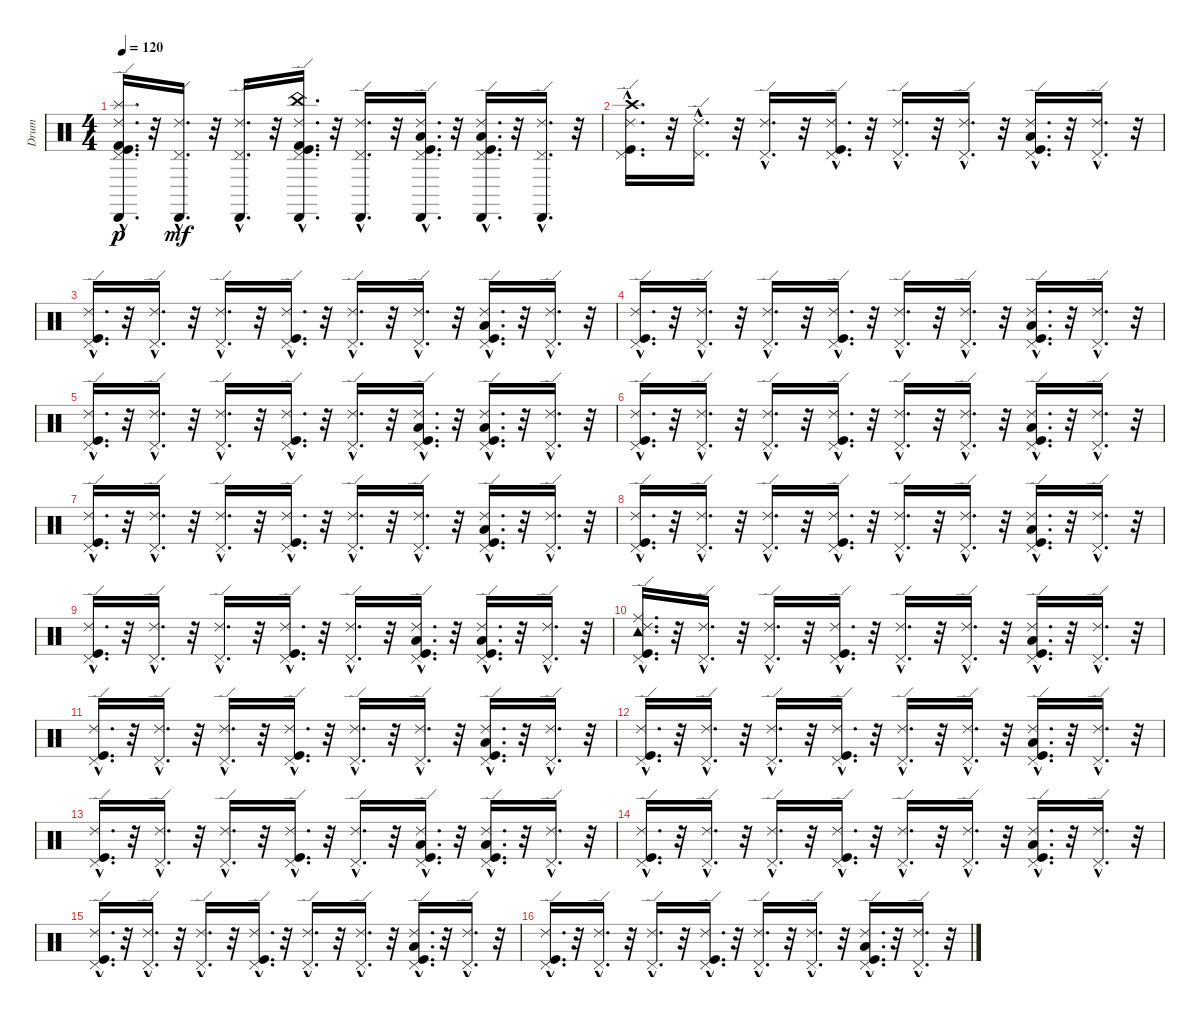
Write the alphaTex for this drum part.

\track ("Drum" "Drum") {instrument percussion}
\staff {score}
\articulation defaults
\ts (4 4)
\tempo 120
\clef neutral
\ks c
("Ride (edge) 2"{hac} "Kick (hit)"{hac} "Pedal Hi-Hat (hit)"{hac} "Cabasa (hit)"{hac} "Kick (hit) 2"{hac} "Splash (hit)"{hac}).16{d dy p} r.32 ("Ride (edge) 2"{hac} "Pedal Hi-Hat (hit)"{hac} "Cabasa (hit)"{hac}).16{d dy mf} r.32 ("Ride (edge) 2"{hac} "Pedal Hi-Hat (hit)"{hac} "Cabasa (hit)"{hac}).16{d} r.32 ("China (hit)"{hac} "Ride (edge) 2"{hac} "Kick (hit)"{hac} "Pedal Hi-Hat (hit)"{hac} "Cabasa (hit)"{hac} "Kick (hit) 2"{hac}).16{d} r.32 ("Ride (edge) 2"{hac} "Pedal Hi-Hat (hit)"{hac} "Cabasa (hit)"{hac}).16{d} r.32 ("Low Tom (hit)"{hac} "Kick (hit)"{hac} "Ride (edge) 2"{hac} "Pedal Hi-Hat (hit)"{hac} "Cabasa (hit)"{hac}).16{d} r.32 ("Ride (edge) 2"{hac} "Low Tom (hit)"{hac} "Kick (hit)"{hac} "Pedal Hi-Hat (hit)"{hac} "Cabasa (hit)"{hac}).16{d} r.32 ("Ride (edge) 2"{hac} "Pedal Hi-Hat (hit)"{hac} "Cabasa (hit)"{hac}).16{d} r.32 |
("Crash high (hit)"{hac} "Pedal Hi-Hat (hit)"{hac} "Kick (hit)"{hac} "Ride (edge) 2"{hac}).16{d} r.32 ("Pedal Hi-Hat (hit)"{hac} "Ride (edge) 2"{hac}).16{d} r.32 ("Pedal Hi-Hat (hit)"{hac} "Ride (edge) 2"{hac}).16{d} r.32 ("Pedal Hi-Hat (hit)"{hac} "Kick (hit)"{hac} "Ride (edge) 2"{hac}).16{d} r.32 ("Pedal Hi-Hat (hit)"{hac} "Ride (edge) 2"{hac}).16{d} r.32 ("Pedal Hi-Hat (hit)"{hac} "Ride (edge) 2"{hac}).16{d} r.32 ("Pedal Hi-Hat (hit)"{hac} "Kick (hit)"{hac} "Low Tom (hit)"{hac} "Ride (edge) 2"{hac}).16{d} r.32 ("Pedal Hi-Hat (hit)"{hac} "Ride (edge) 2"{hac}).16{d} r.32 |
("Ride (edge) 2"{hac} "Kick (hit)"{hac} "Pedal Hi-Hat (hit)"{hac}).16{d} r.32 ("Ride (edge) 2"{hac} "Pedal Hi-Hat (hit)"{hac}).16{d} r.32 ("Ride (edge) 2"{hac} "Pedal Hi-Hat (hit)"{hac}).16{d} r.32 ("Ride (edge) 2"{hac} "Kick (hit)"{hac} "Pedal Hi-Hat (hit)"{hac}).16{d} r.32 ("Ride (edge) 2"{hac} "Pedal Hi-Hat (hit)"{hac}).16{d} r.32 ("Ride (edge) 2"{hac} "Pedal Hi-Hat (hit)"{hac}).16{d} r.32 ("Ride (edge) 2"{hac} "Low Tom (hit)"{hac} "Kick (hit)"{hac} "Pedal Hi-Hat (hit)"{hac}).16{d} r.32 ("Ride (edge) 2"{hac} "Pedal Hi-Hat (hit)"{hac}).16{d} r.32 |
("Ride (edge) 2"{hac} "Kick (hit)"{hac} "Pedal Hi-Hat (hit)"{hac}).16{d} r.32 ("Ride (edge) 2"{hac} "Pedal Hi-Hat (hit)"{hac}).16{d} r.32 ("Ride (edge) 2"{hac} "Pedal Hi-Hat (hit)"{hac}).16{d} r.32 ("Ride (edge) 2"{hac} "Kick (hit)"{hac} "Pedal Hi-Hat (hit)"{hac}).16{d} r.32 ("Ride (edge) 2"{hac} "Pedal Hi-Hat (hit)"{hac}).16{d} r.32 ("Ride (edge) 2"{hac} "Pedal Hi-Hat (hit)"{hac}).16{d} r.32 ("Ride (edge) 2"{hac} "Low Tom (hit)"{hac} "Kick (hit)"{hac} "Pedal Hi-Hat (hit)"{hac}).16{d} r.32 ("Ride (edge) 2"{hac} "Pedal Hi-Hat (hit)"{hac}).16{d} r.32 |
("Ride (edge) 2"{hac} "Kick (hit)"{hac} "Pedal Hi-Hat (hit)"{hac}).16{d} r.32 ("Ride (edge) 2"{hac} "Pedal Hi-Hat (hit)"{hac}).16{d} r.32 ("Ride (edge) 2"{hac} "Pedal Hi-Hat (hit)"{hac}).16{d} r.32 ("Ride (edge) 2"{hac} "Kick (hit)"{hac} "Pedal Hi-Hat (hit)"{hac}).16{d} r.32 ("Ride (edge) 2"{hac} "Pedal Hi-Hat (hit)"{hac}).16{d} r.32 ("Ride (edge) 2"{hac} "Pedal Hi-Hat (hit)"{hac} "Kick (hit)"{hac} "Low Tom (hit)"{hac}).16{d} r.32 ("Ride (edge) 2"{hac} "Low Tom (hit)"{hac} "Kick (hit)"{hac} "Pedal Hi-Hat (hit)"{hac}).16{d} r.32 ("Ride (edge) 2"{hac} "Pedal Hi-Hat (hit)"{hac}).16{d} r.32 |
("Ride (edge) 2"{hac} "Kick (hit)"{hac} "Pedal Hi-Hat (hit)"{hac}).16{d} r.32 ("Ride (edge) 2"{hac} "Pedal Hi-Hat (hit)"{hac}).16{d} r.32 ("Ride (edge) 2"{hac} "Pedal Hi-Hat (hit)"{hac}).16{d} r.32 ("Ride (edge) 2"{hac} "Kick (hit)"{hac} "Pedal Hi-Hat (hit)"{hac}).16{d} r.32 ("Ride (edge) 2"{hac} "Pedal Hi-Hat (hit)"{hac}).16{d} r.32 ("Ride (edge) 2"{hac} "Pedal Hi-Hat (hit)"{hac}).16{d} r.32 ("Ride (edge) 2"{hac} "Low Tom (hit)"{hac} "Kick (hit)"{hac} "Pedal Hi-Hat (hit)"{hac}).16{d} r.32 ("Ride (edge) 2"{hac} "Pedal Hi-Hat (hit)"{hac}).16{d} r.32 |
("Pedal Hi-Hat (hit)"{hac} "Kick (hit)"{hac} "Ride (edge) 2"{hac}).16{d} r.32 ("Pedal Hi-Hat (hit)"{hac} "Ride (edge) 2"{hac}).16{d} r.32 ("Pedal Hi-Hat (hit)"{hac} "Ride (edge) 2"{hac}).16{d} r.32 ("Pedal Hi-Hat (hit)"{hac} "Kick (hit)"{hac} "Ride (edge) 2"{hac}).16{d} r.32 ("Pedal Hi-Hat (hit)"{hac} "Ride (edge) 2"{hac}).16{d} r.32 ("Pedal Hi-Hat (hit)"{hac} "Ride (edge) 2"{hac}).16{d} r.32 ("Pedal Hi-Hat (hit)"{hac} "Kick (hit)"{hac} "Low Tom (hit)"{hac} "Ride (edge) 2"{hac}).16{d} r.32 ("Pedal Hi-Hat (hit)"{hac} "Ride (edge) 2"{hac}).16{d} r.32 |
("Pedal Hi-Hat (hit)"{hac} "Kick (hit)"{hac} "Ride (edge) 2"{hac}).16{d} r.32 ("Pedal Hi-Hat (hit)"{hac} "Ride (edge) 2"{hac}).16{d} r.32 ("Pedal Hi-Hat (hit)"{hac} "Ride (edge) 2"{hac}).16{d} r.32 ("Pedal Hi-Hat (hit)"{hac} "Kick (hit)"{hac} "Ride (edge) 2"{hac}).16{d} r.32 ("Pedal Hi-Hat (hit)"{hac} "Ride (edge) 2"{hac}).16{d} r.32 ("Pedal Hi-Hat (hit)"{hac} "Ride (edge) 2"{hac}).16{d} r.32 ("Pedal Hi-Hat (hit)"{hac} "Kick (hit)"{hac} "Low Tom (hit)"{hac} "Ride (edge) 2"{hac}).16{d} r.32 ("Pedal Hi-Hat (hit)"{hac} "Ride (edge) 2"{hac}).16{d} r.32 |
("Pedal Hi-Hat (hit)"{hac} "Kick (hit)"{hac} "Ride (edge) 2"{hac}).16{d} r.32 ("Pedal Hi-Hat (hit)"{hac} "Ride (edge) 2"{hac}).16{d} r.32 ("Pedal Hi-Hat (hit)"{hac} "Ride (edge) 2"{hac}).16{d} r.32 ("Pedal Hi-Hat (hit)"{hac} "Kick (hit)"{hac} "Ride (edge) 2"{hac}).16{d} r.32 ("Pedal Hi-Hat (hit)"{hac} "Ride (edge) 2"{hac}).16{d} r.32 ("Low Tom (hit)"{hac} "Kick (hit)"{hac} "Pedal Hi-Hat (hit)"{hac} "Ride (edge) 2"{hac}).16{d} r.32 ("Pedal Hi-Hat (hit)"{hac} "Kick (hit)"{hac} "Low Tom (hit)"{hac} "Ride (edge) 2"{hac}).16{d} r.32 ("Pedal Hi-Hat (hit)"{hac} "Ride (edge) 2"{hac}).16{d} r.32 |
("Ride (edge) 2"{hac} "Kick (hit)"{hac} "Pedal Hi-Hat (hit)"{hac} "Ride (middle)"{hac} "Tambourine (hit)"{hac}).16{d} r.32 ("Ride (edge) 2"{hac} "Pedal Hi-Hat (hit)"{hac}).16{d} r.32 ("Ride (edge) 2"{hac} "Pedal Hi-Hat (hit)"{hac}).16{d} r.32 ("Ride (edge) 2"{hac} "Kick (hit)"{hac} "Pedal Hi-Hat (hit)"{hac}).16{d} r.32 ("Ride (edge) 2"{hac} "Pedal Hi-Hat (hit)"{hac}).16{d} r.32 ("Ride (edge) 2"{hac} "Pedal Hi-Hat (hit)"{hac}).16{d} r.32 ("Ride (edge) 2"{hac} "Low Tom (hit)"{hac} "Kick (hit)"{hac} "Pedal Hi-Hat (hit)"{hac}).16{d} r.32 ("Ride (edge) 2"{hac} "Pedal Hi-Hat (hit)"{hac}).16{d} r.32 |
("Pedal Hi-Hat (hit)"{hac} "Kick (hit)"{hac} "Ride (edge) 2"{hac}).16{d} r.32 ("Pedal Hi-Hat (hit)"{hac} "Ride (edge) 2"{hac}).16{d} r.32 ("Pedal Hi-Hat (hit)"{hac} "Ride (edge) 2"{hac}).16{d} r.32 ("Pedal Hi-Hat (hit)"{hac} "Kick (hit)"{hac} "Ride (edge) 2"{hac}).16{d} r.32 ("Pedal Hi-Hat (hit)"{hac} "Ride (edge) 2"{hac}).16{d} r.32 ("Pedal Hi-Hat (hit)"{hac} "Ride (edge) 2"{hac}).16{d} r.32 ("Pedal Hi-Hat (hit)"{hac} "Kick (hit)"{hac} "Low Tom (hit)"{hac} "Ride (edge) 2"{hac}).16{d} r.32 ("Pedal Hi-Hat (hit)"{hac} "Ride (edge) 2"{hac}).16{d} r.32 |
("Pedal Hi-Hat (hit)"{hac} "Kick (hit)"{hac} "Ride (edge) 2"{hac}).16{d} r.32 ("Pedal Hi-Hat (hit)"{hac} "Ride (edge) 2"{hac}).16{d} r.32 ("Pedal Hi-Hat (hit)"{hac} "Ride (edge) 2"{hac}).16{d} r.32 ("Pedal Hi-Hat (hit)"{hac} "Kick (hit)"{hac} "Ride (edge) 2"{hac}).16{d} r.32 ("Pedal Hi-Hat (hit)"{hac} "Ride (edge) 2"{hac}).16{d} r.32 ("Pedal Hi-Hat (hit)"{hac} "Ride (edge) 2"{hac}).16{d} r.32 ("Pedal Hi-Hat (hit)"{hac} "Kick (hit)"{hac} "Low Tom (hit)"{hac} "Ride (edge) 2"{hac}).16{d} r.32 ("Pedal Hi-Hat (hit)"{hac} "Ride (edge) 2"{hac}).16{d} r.32 |
("Pedal Hi-Hat (hit)"{hac} "Kick (hit)"{hac} "Ride (edge) 2"{hac}).16{d} r.32 ("Pedal Hi-Hat (hit)"{hac} "Ride (edge) 2"{hac}).16{d} r.32 ("Pedal Hi-Hat (hit)"{hac} "Ride (edge) 2"{hac}).16{d} r.32 ("Pedal Hi-Hat (hit)"{hac} "Kick (hit)"{hac} "Ride (edge) 2"{hac}).16{d} r.32 ("Pedal Hi-Hat (hit)"{hac} "Ride (edge) 2"{hac}).16{d} r.32 ("Low Tom (hit)"{hac} "Kick (hit)"{hac} "Pedal Hi-Hat (hit)"{hac} "Ride (edge) 2"{hac}).16{d} r.32 ("Pedal Hi-Hat (hit)"{hac} "Kick (hit)"{hac} "Low Tom (hit)"{hac} "Ride (edge) 2"{hac}).16{d} r.32 ("Pedal Hi-Hat (hit)"{hac} "Ride (edge) 2"{hac}).16{d} r.32 |
("Pedal Hi-Hat (hit)"{hac} "Kick (hit)"{hac} "Ride (edge) 2"{hac}).16{d} r.32 ("Pedal Hi-Hat (hit)"{hac} "Ride (edge) 2"{hac}).16{d} r.32 ("Pedal Hi-Hat (hit)"{hac} "Ride (edge) 2"{hac}).16{d} r.32 ("Pedal Hi-Hat (hit)"{hac} "Kick (hit)"{hac} "Ride (edge) 2"{hac}).16{d} r.32 ("Pedal Hi-Hat (hit)"{hac} "Ride (edge) 2"{hac}).16{d} r.32 ("Pedal Hi-Hat (hit)"{hac} "Ride (edge) 2"{hac}).16{d} r.32 ("Pedal Hi-Hat (hit)"{hac} "Kick (hit)"{hac} "Low Tom (hit)"{hac} "Ride (edge) 2"{hac}).16{d} r.32 ("Pedal Hi-Hat (hit)"{hac} "Ride (edge) 2"{hac}).16{d} r.32 |
("Ride (edge) 2"{hac} "Kick (hit)"{hac} "Pedal Hi-Hat (hit)"{hac}).16{d} r.32 ("Ride (edge) 2"{hac} "Pedal Hi-Hat (hit)"{hac}).16{d} r.32 ("Ride (edge) 2"{hac} "Pedal Hi-Hat (hit)"{hac}).16{d} r.32 ("Ride (edge) 2"{hac} "Kick (hit)"{hac} "Pedal Hi-Hat (hit)"{hac}).16{d} r.32 ("Ride (edge) 2"{hac} "Pedal Hi-Hat (hit)"{hac}).16{d} r.32 ("Ride (edge) 2"{hac} "Pedal Hi-Hat (hit)"{hac}).16{d} r.32 ("Ride (edge) 2"{hac} "Low Tom (hit)"{hac} "Kick (hit)"{hac} "Pedal Hi-Hat (hit)"{hac}).16{d} r.32 ("Ride (edge) 2"{hac} "Pedal Hi-Hat (hit)"{hac}).16{d} r.32 |
("Ride (edge) 2"{hac} "Kick (hit)"{hac} "Pedal Hi-Hat (hit)"{hac}).16{d} r.32 ("Ride (edge) 2"{hac} "Pedal Hi-Hat (hit)"{hac}).16{d} r.32 ("Ride (edge) 2"{hac} "Pedal Hi-Hat (hit)"{hac}).16{d} r.32 ("Ride (edge) 2"{hac} "Kick (hit)"{hac} "Pedal Hi-Hat (hit)"{hac}).16{d} r.32 ("Ride (edge) 2"{hac} "Pedal Hi-Hat (hit)"{hac}).16{d} r.32 ("Ride (edge) 2"{hac} "Pedal Hi-Hat (hit)"{hac}).16{d} r.32 ("Ride (edge) 2"{hac} "Low Tom (hit)"{hac} "Kick (hit)"{hac} "Pedal Hi-Hat (hit)"{hac}).16{d} r.32 ("Ride (edge) 2"{hac} "Pedal Hi-Hat (hit)"{hac}).16{d} r.32
